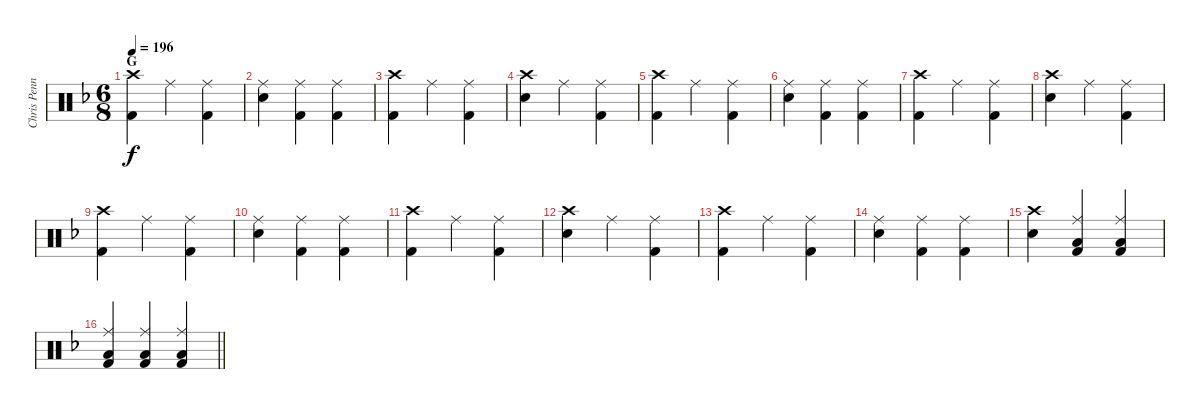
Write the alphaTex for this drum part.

\track ("Chris Pennie/Taylor Hawkins - Drum" "Chris Penn") {instrument percussion}
\staff {score}
\articulation defaults
\ts (6 8)
\section ("" "G")
\tempo 196
\clef neutral
\ks f
("Crash high (hit)" "Kick (hit) 2").4{dy f} "Ride (middle)".4 ("Ride (middle)" "Kick (hit) 2").4 |
("Ride (middle)" "Electric Snare (hit)").4 ("Ride (middle)" "Kick (hit) 2").4 ("Ride (middle)" "Kick (hit) 2").4 |
("Crash high (hit)" "Kick (hit) 2").4 "Ride (middle)".4 ("Ride (middle)" "Kick (hit) 2").4 |
("Crash high (hit)" "Electric Snare (hit)").4 "Ride (middle)".4 ("Ride (middle)" "Kick (hit) 2").4 |
("Crash high (hit)" "Kick (hit) 2").4 "Ride (middle)".4 ("Ride (middle)" "Kick (hit) 2").4 |
("Ride (middle)" "Electric Snare (hit)").4 ("Ride (middle)" "Kick (hit) 2").4 ("Ride (middle)" "Kick (hit) 2").4 |
("Crash high (hit)" "Kick (hit) 2").4 "Ride (middle)".4 ("Ride (middle)" "Kick (hit) 2").4 |
("Crash high (hit)" "Electric Snare (hit)").4 "Ride (middle)".4 ("Ride (middle)" "Kick (hit) 2").4 |
("Crash high (hit)" "Kick (hit) 2").4 "Ride (middle)".4 ("Ride (middle)" "Kick (hit) 2").4 |
("Ride (middle)" "Electric Snare (hit)").4 ("Ride (middle)" "Kick (hit) 2").4 ("Ride (middle)" "Kick (hit) 2").4 |
("Crash high (hit)" "Kick (hit) 2").4 "Ride (middle)".4 ("Ride (middle)" "Kick (hit) 2").4 |
("Crash high (hit)" "Electric Snare (hit)").4 "Ride (middle)".4 ("Ride (middle)" "Kick (hit) 2").4 |
("Crash high (hit)" "Kick (hit) 2").4 "Ride (middle)".4 ("Ride (middle)" "Kick (hit) 2").4 |
("Ride (middle)" "Electric Snare (hit)").4 ("Ride (middle)" "Kick (hit) 2").4 ("Ride (middle)" "Kick (hit) 2").4 |
("Crash high (hit)" "Electric Snare (hit)").4 ("Ride (middle)" "Low Floor Tom (hit)" "Kick (hit) 2").4 ("Ride (middle)" "Low Floor Tom (hit)" "Kick (hit) 2").4 |
\barLineRight lightlight
("Ride (middle)" "Low Floor Tom (hit)" "Kick (hit) 2").4 ("Ride (middle)" "Low Floor Tom (hit)" "Kick (hit) 2").4 ("Ride (middle)" "Low Floor Tom (hit)" "Kick (hit) 2").4
